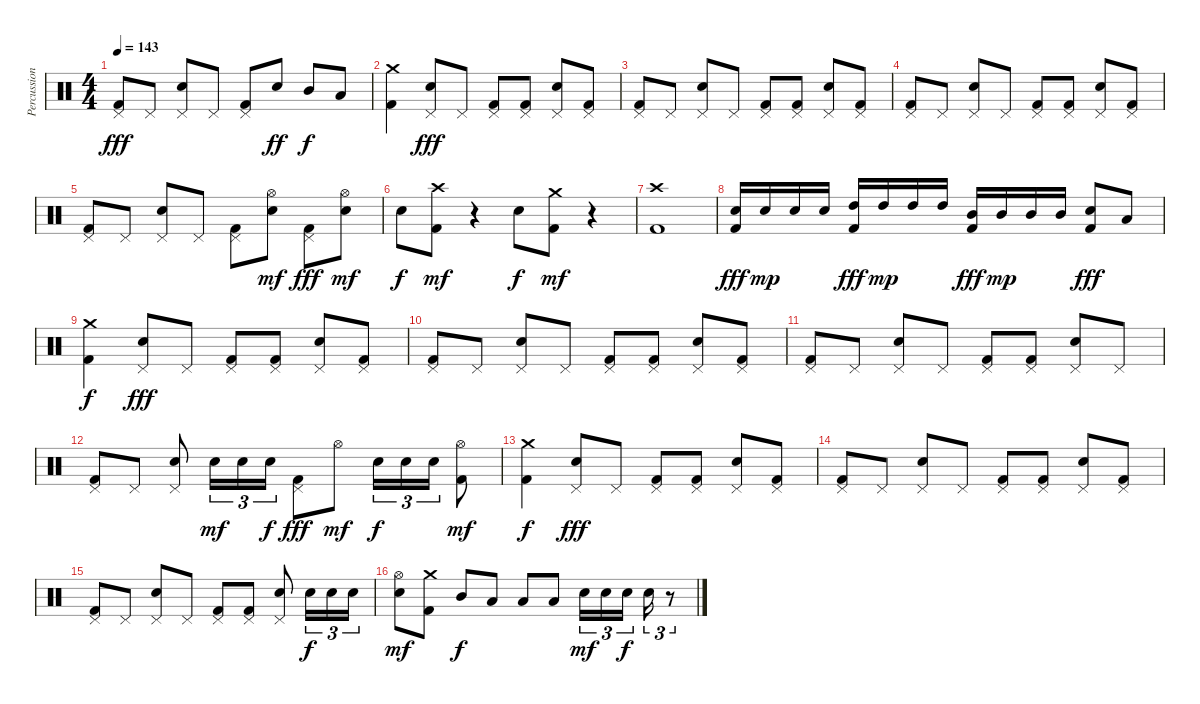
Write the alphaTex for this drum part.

\track ("Percussion" "Percussion") {instrument percussion}
\staff {score}
\articulation defaults
\ts (4 4)
\tempo 143
\clef neutral
\ks c
("Pedal Hi-Hat (hit)" "Kick (hit) 2").8{dy fff} "Pedal Hi-Hat (hit)".8 ("Pedal Hi-Hat (hit)" "Snare (hit) 2").8 "Pedal Hi-Hat (hit)".8 ("Pedal Hi-Hat (hit)" "Kick (hit) 2").8 "Snare (hit) 2".8{dy ff} "Mid Tom (hit)".8{dy f} "Low Tom (hit)".8 |
("Crash medium (hit)" "Kick (hit) 2").4 ("Pedal Hi-Hat (hit)" "Snare (hit) 2").8{dy fff} "Pedal Hi-Hat (hit)".8 ("Pedal Hi-Hat (hit)" "Kick (hit) 2").8 ("Pedal Hi-Hat (hit)" "Kick (hit) 2").8 ("Pedal Hi-Hat (hit)" "Snare (hit) 2").8 ("Pedal Hi-Hat (hit)" "Kick (hit) 2").8 |
("Pedal Hi-Hat (hit)" "Kick (hit) 2").8 "Pedal Hi-Hat (hit)".8 ("Pedal Hi-Hat (hit)" "Snare (hit) 2").8 "Pedal Hi-Hat (hit)".8 ("Pedal Hi-Hat (hit)" "Kick (hit) 2").8 ("Pedal Hi-Hat (hit)" "Kick (hit) 2").8 ("Pedal Hi-Hat (hit)" "Snare (hit) 2").8 ("Pedal Hi-Hat (hit)" "Kick (hit) 2").8 |
("Pedal Hi-Hat (hit)" "Kick (hit) 2").8 "Pedal Hi-Hat (hit)".8 ("Pedal Hi-Hat (hit)" "Snare (hit) 2").8 "Pedal Hi-Hat (hit)".8 ("Pedal Hi-Hat (hit)" "Kick (hit) 2").8 ("Pedal Hi-Hat (hit)" "Kick (hit) 2").8 ("Pedal Hi-Hat (hit)" "Snare (hit) 2").8 ("Pedal Hi-Hat (hit)" "Kick (hit) 2").8 |
("Pedal Hi-Hat (hit)" "Kick (hit) 2").8 "Pedal Hi-Hat (hit)".8 ("Pedal Hi-Hat (hit)" "Snare (hit) 2").8 "Pedal Hi-Hat (hit)".8 ("Pedal Hi-Hat (hit)" "Kick (hit) 2").8 ("Hi-Hat (open)" "Snare (hit) 2").8{dy mf} ("Pedal Hi-Hat (hit)" "Kick (hit) 2").8{dy fff} ("Hi-Hat (open)" "Snare (hit) 2").8{dy mf} |
"Snare (hit) 2".8{dy f} ("Crash high (hit)" "Kick (hit) 2").8{dy mf} r.4 "Snare (hit) 2".8{dy f} ("Crash medium (hit)" "Kick (hit) 2").8{dy mf} r.4 |
("Crash high (hit)" "Kick (hit) 2").1 |
("Snare (hit) 2" "Kick (hit) 2").16{dy fff} "Snare (hit) 2".16{dy mp} "Snare (hit) 2".16 "Snare (hit) 2".16 ("High Tom (hit)" "Kick (hit) 2").16{dy fff} "High Tom (hit)".16{dy mp} "High Tom (hit)".16 "High Tom (hit)".16 ("Mid Tom (hit)" "Kick (hit) 2").16{dy fff} "Mid Tom (hit)".16{dy mp} "Mid Tom (hit)".16 "Mid Tom (hit)".16 ("Snare (hit) 2" "Kick (hit) 2").8{dy fff} "Low Tom (hit)".8 |
("Crash medium (hit)" "Kick (hit) 2").4{dy f} ("Pedal Hi-Hat (hit)" "Snare (hit) 2").8{dy fff} "Pedal Hi-Hat (hit)".8 ("Pedal Hi-Hat (hit)" "Kick (hit) 2").8 ("Pedal Hi-Hat (hit)" "Kick (hit) 2").8 ("Pedal Hi-Hat (hit)" "Snare (hit) 2").8 ("Pedal Hi-Hat (hit)" "Kick (hit) 2").8 |
("Pedal Hi-Hat (hit)" "Kick (hit) 2").8 "Pedal Hi-Hat (hit)".8 ("Pedal Hi-Hat (hit)" "Snare (hit) 2").8 "Pedal Hi-Hat (hit)".8 ("Pedal Hi-Hat (hit)" "Kick (hit) 2").8 ("Pedal Hi-Hat (hit)" "Kick (hit) 2").8 ("Pedal Hi-Hat (hit)" "Snare (hit) 2").8 ("Pedal Hi-Hat (hit)" "Kick (hit) 2").8 |
("Pedal Hi-Hat (hit)" "Kick (hit) 2").8 "Pedal Hi-Hat (hit)".8 ("Pedal Hi-Hat (hit)" "Snare (hit) 2").8 "Pedal Hi-Hat (hit)".8 ("Pedal Hi-Hat (hit)" "Kick (hit) 2").8 ("Pedal Hi-Hat (hit)" "Kick (hit) 2").8 ("Pedal Hi-Hat (hit)" "Snare (hit) 2").8 "Pedal Hi-Hat (hit)".8 |
("Pedal Hi-Hat (hit)" "Kick (hit) 2").8 "Pedal Hi-Hat (hit)".8 ("Pedal Hi-Hat (hit)" "Snare (hit) 2").8 "Snare (hit) 2".16{tu (3 2) dy mf} "Snare (hit) 2".16{tu (3 2)} "Snare (hit) 2".16{tu (3 2) dy f} ("Pedal Hi-Hat (hit)" "Kick (hit) 2").8{dy fff} "Hi-Hat (open)".8{dy mf} "Snare (hit) 2".16{tu (3 2) dy f} "Snare (hit) 2".16{tu (3 2)} "Snare (hit) 2".16{tu (3 2)} ("Hi-Hat (open)" "Kick (hit) 2").8{dy mf} |
("Crash medium (hit)" "Kick (hit) 2").4{dy f} ("Pedal Hi-Hat (hit)" "Snare (hit) 2").8{dy fff} "Pedal Hi-Hat (hit)".8 ("Pedal Hi-Hat (hit)" "Kick (hit) 2").8 ("Pedal Hi-Hat (hit)" "Kick (hit) 2").8 ("Pedal Hi-Hat (hit)" "Snare (hit) 2").8 ("Pedal Hi-Hat (hit)" "Kick (hit) 2").8 |
("Pedal Hi-Hat (hit)" "Kick (hit) 2").8 "Pedal Hi-Hat (hit)".8 ("Pedal Hi-Hat (hit)" "Snare (hit) 2").8 "Pedal Hi-Hat (hit)".8 ("Pedal Hi-Hat (hit)" "Kick (hit) 2").8 ("Pedal Hi-Hat (hit)" "Kick (hit) 2").8 ("Pedal Hi-Hat (hit)" "Snare (hit) 2").8 ("Pedal Hi-Hat (hit)" "Kick (hit) 2").8 |
("Pedal Hi-Hat (hit)" "Kick (hit) 2").8 "Pedal Hi-Hat (hit)".8 ("Pedal Hi-Hat (hit)" "Snare (hit) 2").8 "Pedal Hi-Hat (hit)".8 ("Pedal Hi-Hat (hit)" "Kick (hit) 2").8 ("Pedal Hi-Hat (hit)" "Kick (hit) 2").8 ("Pedal Hi-Hat (hit)" "Snare (hit) 2").8 "Snare (hit) 2".16{tu (3 2) dy f} "Snare (hit) 2".16{tu (3 2)} "Snare (hit) 2".16{tu (3 2)} |
("Hi-Hat (open)" "Snare (hit) 2").8{dy mf} ("Crash medium (hit)" "Kick (hit) 2").8 "Mid Tom (hit)".8{dy f} "Low Tom (hit)".8 "Low Tom (hit)".8 "Low Tom (hit)".8 "Snare (hit) 2".16{tu (3 2) dy mf} "Snare (hit) 2".16{tu (3 2)} "Snare (hit) 2".16{tu (3 2) dy f} "Snare (hit) 2".16{tu (3 2)} r.8{tu (3 2)}
